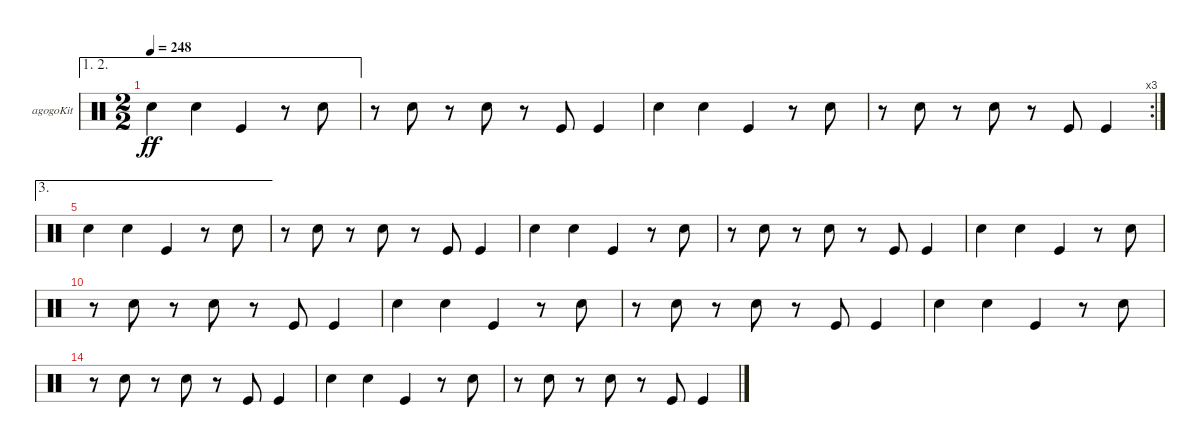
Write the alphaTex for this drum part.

\bracketExtendMode nobrackets
\firstSystemTrackNameOrientation horizontal
\otherSystemsTrackNameOrientation horizontal
\defaultBarNumberDisplay FirstOfSystem
\track ("Agogo" "agogoKit") {instrument percussion}
\staff {score}
\articulation defaults
\ae (1 2)
\ts (2 2)
\tempo 248
\clef neutral
\ks c "Snare (hit) 2".4{dy ff} "Snare (hit) 2".4 "Kick (hit)".4
r.8 "Snare (hit) 2".8 |
r.8 "Snare (hit) 2".8 r.8 "Snare (hit) 2".8 r.8 "Kick (hit)".8 "Kick (hit)".4 |
"Snare (hit) 2".4 "Snare (hit) 2".4 "Kick (hit)".4 r.8 "Snare (hit) 2".8 |
\rc 3
r.8 "Snare (hit) 2".8 r.8 "Snare (hit) 2".8 r.8 "Kick (hit)".8 "Kick (hit)".4 |
\ae 3 "Snare (hit) 2".4 "Snare (hit) 2".4 "Kick (hit)".4
r.8 "Snare (hit) 2".8 |
r.8 "Snare (hit) 2".8 r.8 "Snare (hit) 2".8 r.8 "Kick (hit)".8 "Kick (hit)".4 |
"Snare (hit) 2".4 "Snare (hit) 2".4 "Kick (hit)".4 r.8 "Snare (hit) 2".8 |
r.8 "Snare (hit) 2".8 r.8 "Snare (hit) 2".8 r.8 "Kick (hit)".8 "Kick (hit)".4 |
"Snare (hit) 2".4 "Snare (hit) 2".4 "Kick (hit)".4 r.8 "Snare (hit) 2".8 |
r.8 "Snare (hit) 2".8 r.8 "Snare (hit) 2".8 r.8 "Kick (hit)".8 "Kick (hit)".4 |
"Snare (hit) 2".4 "Snare (hit) 2".4 "Kick (hit)".4 r.8 "Snare (hit) 2".8 |
r.8 "Snare (hit) 2".8 r.8 "Snare (hit) 2".8 r.8 "Kick (hit)".8 "Kick (hit)".4 |
"Snare (hit) 2".4 "Snare (hit) 2".4 "Kick (hit)".4 r.8 "Snare (hit) 2".8 |
r.8 "Snare (hit) 2".8 r.8 "Snare (hit) 2".8 r.8 "Kick (hit)".8 "Kick (hit)".4 |
"Snare (hit) 2".4 "Snare (hit) 2".4 "Kick (hit)".4 r.8 "Snare (hit) 2".8 |
r.8 "Snare (hit) 2".8 r.8 "Snare (hit) 2".8 r.8 "Kick (hit)".8 "Kick (hit)".4
